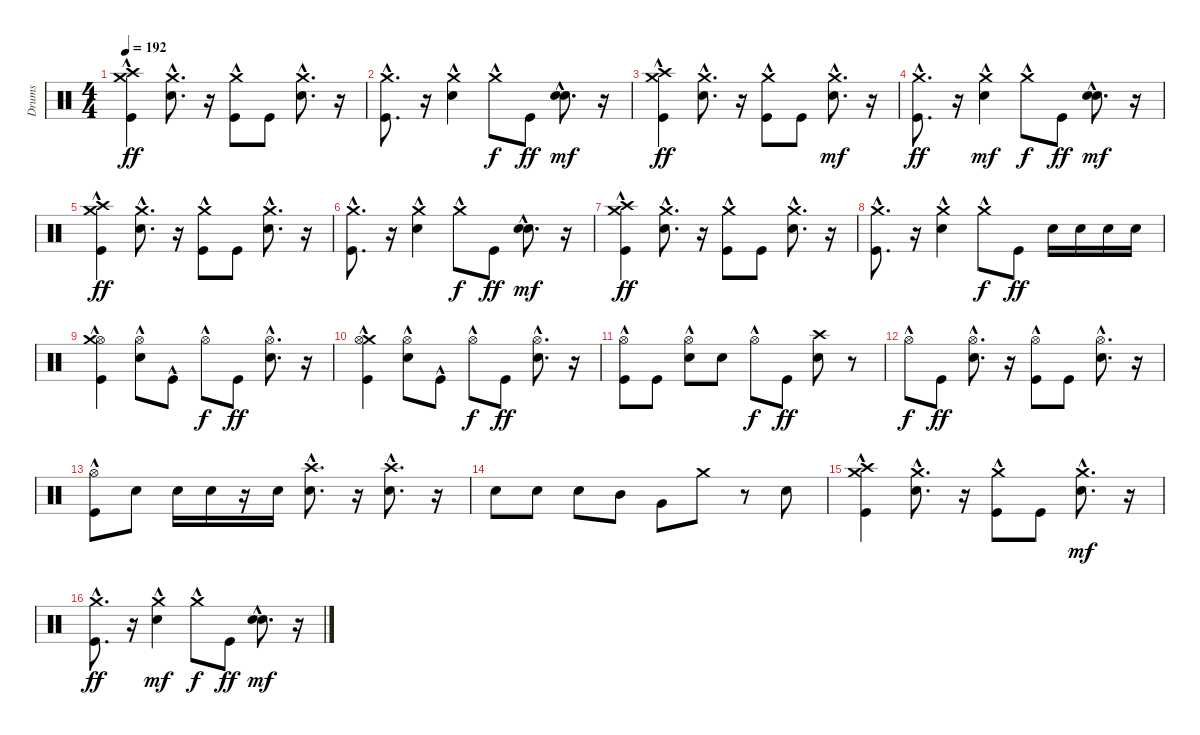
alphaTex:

\track ("Drums" "Drums") {instrument percussion}
\staff {score}
\articulation defaults
\ts (4 4)
\tempo 192
\clef neutral
\ks c
("Kick (hit)"{hac} "Crash high (hit)"{hac} "Crash medium (hit)"{hac}).4{dy ff} ("Crash medium (hit)"{hac} "Electric Snare (hit)"{hac}).8{d} r.16 ("Kick (hit)" "Crash medium (hit)"{hac}).8 "Kick (hit)".8 ("Crash medium (hit)"{hac} "Electric Snare (hit)"{hac}).8{d} r.16 |
("Kick (hit)"{hac} "Crash medium (hit)"{hac}).8{d} r.16 ("Crash medium (hit)"{hac} "Electric Snare (hit)").4 "Crash medium (hit)"{hac}.8{dy f} "Kick (hit)".8{dy ff} ("Electric Snare (hit)"{hac} "Snare (hit) 2"{hac}).8{d dy mf} r.16 |
("Crash high (hit)"{hac} "Kick (hit)"{hac} "Crash medium (hit)"{hac}).4{dy ff} ("Crash medium (hit)"{hac} "Electric Snare (hit)"{hac}).8{d} r.16 ("Kick (hit)" "Crash medium (hit)"{hac}).8 "Kick (hit)".8 ("Electric Snare (hit)"{hac} "Crash medium (hit)"{hac}).8{d dy mf} r.16 |
("Crash medium (hit)"{hac} "Kick (hit)"{hac}).8{d dy ff} r.16 ("Electric Snare (hit)" "Crash medium (hit)"{hac}).4{dy mf} "Crash medium (hit)"{hac}.8{dy f} "Kick (hit)".8{dy ff} ("Electric Snare (hit)"{hac} "Snare (hit) 2"{hac}).8{d dy mf} r.16 |
("Crash high (hit)"{hac} "Kick (hit)"{hac} "Crash medium (hit)"{hac}).4{dy ff} ("Crash medium (hit)"{hac} "Electric Snare (hit)"{hac}).8{d} r.16 ("Kick (hit)" "Crash medium (hit)"{hac}).8 "Kick (hit)".8 ("Crash medium (hit)"{hac} "Electric Snare (hit)"{hac}).8{d} r.16 |
("Kick (hit)"{hac} "Crash medium (hit)"{hac}).8{d} r.16 ("Crash medium (hit)"{hac} "Electric Snare (hit)").4 "Crash medium (hit)"{hac}.8{dy f} "Kick (hit)".8{dy ff} ("Electric Snare (hit)"{hac} "Snare (hit) 2"{hac}).8{d dy mf} r.16 |
("Crash high (hit)"{hac} "Kick (hit)"{hac} "Crash medium (hit)"{hac}).4{dy ff} ("Crash medium (hit)"{hac} "Electric Snare (hit)"{hac}).8{d} r.16 ("Kick (hit)" "Crash medium (hit)"{hac}).8 "Kick (hit)".8 ("Crash medium (hit)"{hac} "Electric Snare (hit)"{hac}).8{d} r.16 |
("Kick (hit)"{hac} "Crash medium (hit)"{hac}).8{d} r.16 ("Crash medium (hit)"{hac} "Electric Snare (hit)").4 "Crash medium (hit)"{hac}.8{dy f} "Kick (hit)".8{dy ff} "Electric Snare (hit)".16 "Electric Snare (hit)".16 "Electric Snare (hit)".16 "Electric Snare (hit)".16 |
("Kick (hit)"{hac} "Hi-Hat (open)"{hac} "Crash medium (hit)"{hac}).4 ("Electric Snare (hit)" "Hi-Hat (open)"{hac}).8 "Kick (hit)"{hac}.8 "Hi-Hat (open)"{hac}.8{dy f} "Kick (hit)".8{dy ff} ("Hi-Hat (open)"{hac} "Electric Snare (hit)"{hac}).8{d} r.16 |
("Crash medium (hit)"{hac} "Kick (hit)"{hac} "Hi-Hat (open)"{hac}).4 ("Electric Snare (hit)" "Hi-Hat (open)"{hac}).8 "Kick (hit)"{hac}.8 "Hi-Hat (open)"{hac}.8{dy f} "Kick (hit)".8{dy ff} ("Hi-Hat (open)"{hac} "Electric Snare (hit)"{hac}).8{d} r.16 |
("Hi-Hat (open)"{hac} "Kick (hit)").8 "Kick (hit)".8 ("Electric Snare (hit)" "Hi-Hat (open)"{hac}).8 "Electric Snare (hit)".8 "Hi-Hat (open)"{hac}.8{dy f} "Kick (hit)".8{dy ff} ("Electric Snare (hit)" "Crash high (hit)").8 r.8 |
"Hi-Hat (open)"{hac}.8{dy f} "Kick (hit)".8{dy ff} ("Electric Snare (hit)"{hac} "Hi-Hat (open)"{hac}).8{d} r.16 ("Hi-Hat (open)"{hac} "Kick (hit)").8 "Kick (hit)".8 ("Hi-Hat (open)"{hac} "Electric Snare (hit)"{hac}).8{d} r.16 |
("Kick (hit)" "Hi-Hat (open)"{hac}).8 "Electric Snare (hit)".8 "Electric Snare (hit)".16 "Electric Snare (hit)".16 r.16 "Electric Snare (hit)".16 ("Electric Snare (hit)"{hac} "Crash high (hit)"{hac}).8{d} r.16 ("Crash high (hit)"{hac} "Electric Snare (hit)"{hac}).8{d} r.16 |
"Electric Snare (hit)".8 "Electric Snare (hit)".8 "Electric Snare (hit)".8 "Mid Tom (hit)".8 "Very Low Tom (hit)".8 "Crash medium (hit)".8 r.8 "Electric Snare (hit)".8 |
("Crash high (hit)"{hac} "Kick (hit)"{hac} "Crash medium (hit)"{hac}).4 ("Crash medium (hit)"{hac} "Electric Snare (hit)"{hac}).8{d} r.16 ("Kick (hit)" "Crash medium (hit)"{hac}).8 "Kick (hit)".8 ("Electric Snare (hit)"{hac} "Crash medium (hit)"{hac}).8{d dy mf} r.16 |
("Crash medium (hit)"{hac} "Kick (hit)"{hac}).8{d dy ff} r.16 ("Electric Snare (hit)" "Crash medium (hit)"{hac}).4{dy mf} "Crash medium (hit)"{hac}.8{dy f} "Kick (hit)".8{dy ff} ("Electric Snare (hit)"{hac} "Snare (hit) 2"{hac}).8{d dy mf} r.16
